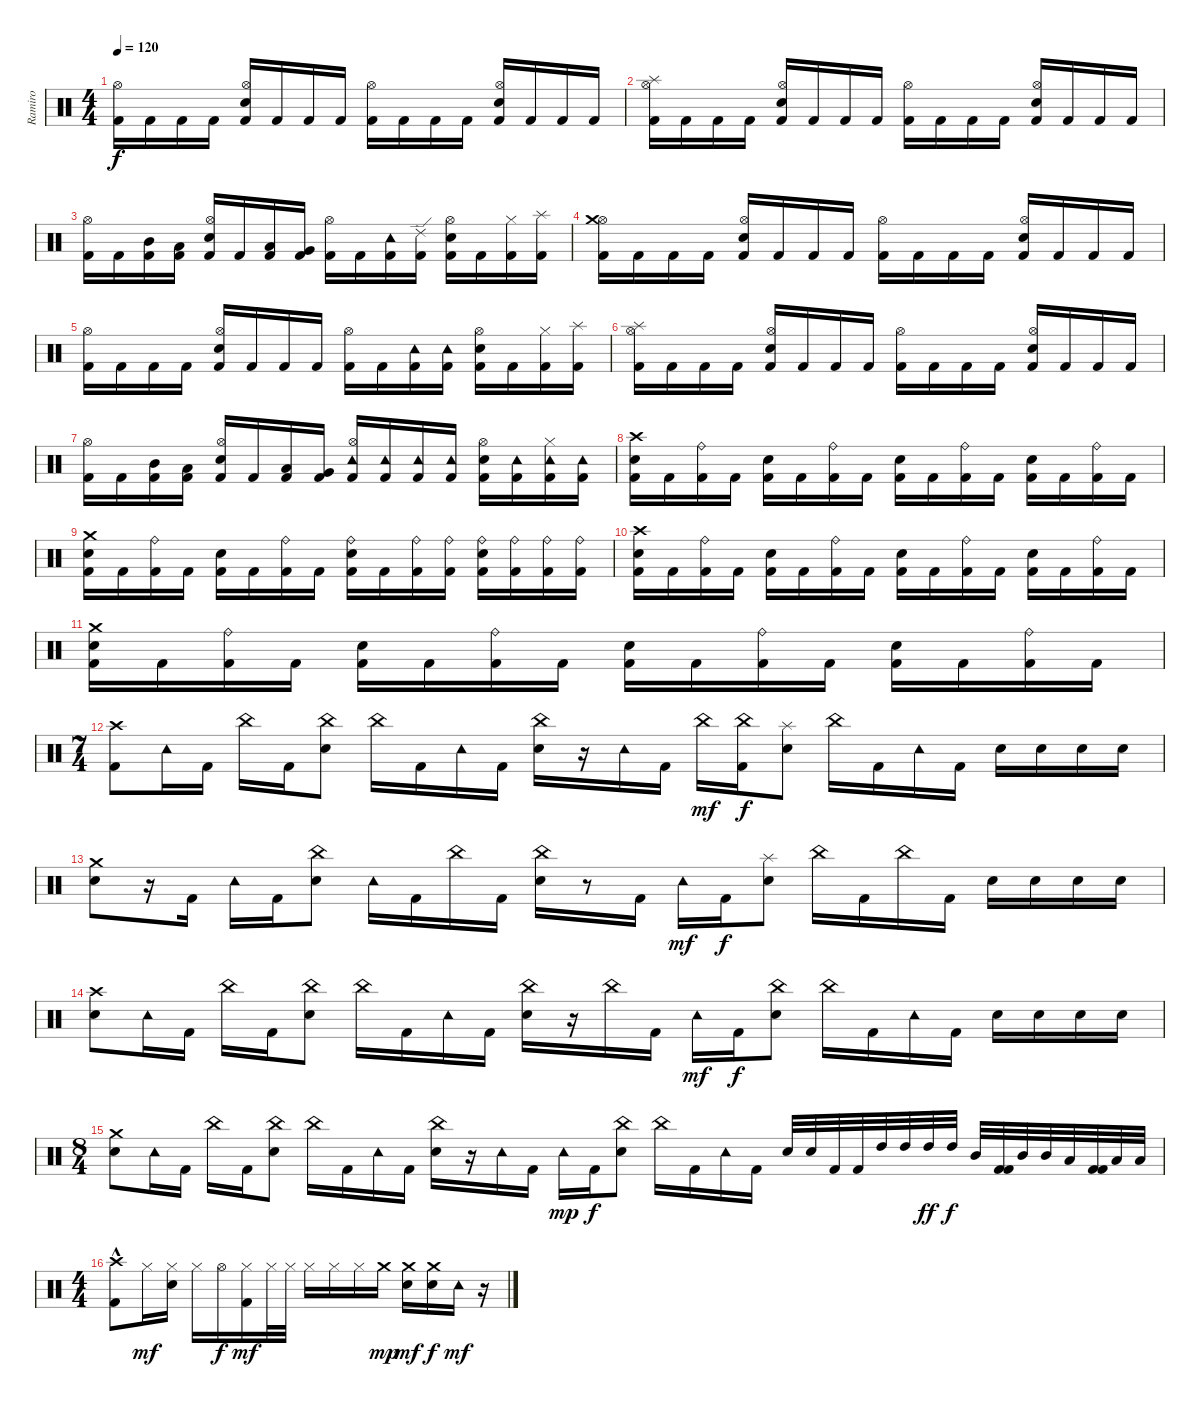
\track ("Ramiro" "Ramiro") {instrument percussion}
\staff {score}
\articulation defaults
\ts (4 4)
\tempo 120
\clef neutral
\ks c
("Kick (hit) 2" "Hi-Hat (open)").16{dy f} "Kick (hit) 2".16 "Kick (hit) 2".16 "Kick (hit) 2".16 ("Kick (hit) 2" "Electric Snare (hit)" "Hi-Hat (open)").16 "Kick (hit) 2".16 "Kick (hit) 2".16 "Kick (hit) 2".16 ("Kick (hit) 2" "Hi-Hat (open)").16 "Kick (hit) 2".16 "Kick (hit) 2".16 "Kick (hit) 2".16 ("Kick (hit) 2" "Electric Snare (hit)" "Hi-Hat (open)").16 "Kick (hit) 2".16 "Kick (hit) 2".16 "Kick (hit) 2".16 |
("Kick (hit) 2" "Splash (hit)" "Hi-Hat (open)").16 "Kick (hit) 2".16 "Kick (hit) 2".16 "Kick (hit) 2".16 ("Kick (hit) 2" "Electric Snare (hit)" "Hi-Hat (open)").16 "Kick (hit) 2".16 "Kick (hit) 2".16 "Kick (hit) 2".16 ("Kick (hit) 2" "Hi-Hat (open)").16 "Kick (hit) 2".16 "Kick (hit) 2".16 "Kick (hit) 2".16 ("Kick (hit) 2" "Electric Snare (hit)" "Hi-Hat (open)").16 "Kick (hit) 2".16 "Kick (hit) 2".16 "Kick (hit) 2".16 |
("Kick (hit) 2" "Hi-Hat (open)").16 "Kick (hit) 2".16 ("Kick (hit) 2" "Mid Tom (hit)").16 ("Kick (hit) 2" "Low Tom (hit)").16 ("Kick (hit) 2" "Electric Snare (hit)" "Hi-Hat (open)").16 "Kick (hit) 2".16 ("Kick (hit) 2" "Low Tom (hit)").16 ("Kick (hit) 2" "Very Low Tom (hit)").16 ("Kick (hit) 2" "Hi-Hat (open)").16 "Kick (hit) 2".16 ("Kick (hit) 2" "Tambourine (hit)").16 ("Kick (hit) 2" "Ride (edge) 2").16 ("Kick (hit) 2" "Hi-Hat (open)" "Electric Snare (hit)").16 "Kick (hit) 2".16 ("Kick (hit) 2" "Hi-Hat (closed)").16 ("Kick (hit) 2" "Splash (hit)").16 |
("Kick (hit) 2" "Hi-Hat (open)" "Crash medium (hit)").16 "Kick (hit) 2".16 "Kick (hit) 2".16 "Kick (hit) 2".16 ("Kick (hit) 2" "Electric Snare (hit)" "Hi-Hat (open)").16 "Kick (hit) 2".16 "Kick (hit) 2".16 "Kick (hit) 2".16 ("Kick (hit) 2" "Hi-Hat (open)").16 "Kick (hit) 2".16 "Kick (hit) 2".16 "Kick (hit) 2".16 ("Kick (hit) 2" "Electric Snare (hit)" "Hi-Hat (open)").16 "Kick (hit) 2".16 "Kick (hit) 2".16 "Kick (hit) 2".16 |
("Kick (hit) 2" "Hi-Hat (open)").16 "Kick (hit) 2".16 "Kick (hit) 2".16 "Kick (hit) 2".16 ("Kick (hit) 2" "Electric Snare (hit)" "Hi-Hat (open)").16 "Kick (hit) 2".16 "Kick (hit) 2".16 "Kick (hit) 2".16 ("Hi-Hat (open)" "Kick (hit) 2").16 "Kick (hit) 2".16 ("Tambourine (hit)" "Kick (hit) 2").16 ("Kick (hit) 2" "Tambourine (hit)").16 ("Hi-Hat (open)" "Electric Snare (hit)" "Kick (hit) 2").16 "Kick (hit) 2".16 ("Hi-Hat (closed)" "Kick (hit) 2").16 ("Splash (hit)" "Kick (hit) 2").16 |
("Hi-Hat (open)" "Splash (hit)" "Kick (hit) 2").16 "Kick (hit) 2".16 "Kick (hit) 2".16 "Kick (hit) 2".16 ("Kick (hit) 2" "Electric Snare (hit)" "Hi-Hat (open)").16 "Kick (hit) 2".16 "Kick (hit) 2".16 "Kick (hit) 2".16 ("Kick (hit) 2" "Hi-Hat (open)").16 "Kick (hit) 2".16 "Kick (hit) 2".16 "Kick (hit) 2".16 ("Kick (hit) 2" "Electric Snare (hit)" "Hi-Hat (open)").16 "Kick (hit) 2".16 "Kick (hit) 2".16 "Kick (hit) 2".16 |
("Kick (hit) 2" "Hi-Hat (open)").16 "Kick (hit) 2".16 ("Kick (hit) 2" "Mid Tom (hit)").16 ("Kick (hit) 2" "Low Tom (hit)").16 ("Kick (hit) 2" "Electric Snare (hit)" "Hi-Hat (open)").16 "Kick (hit) 2".16 ("Kick (hit) 2" "Low Tom (hit)").16 ("Kick (hit) 2" "Very Low Tom (hit)").16 ("Kick (hit) 2" "Hi-Hat (open)" "Tambourine (hit)").16 ("Kick (hit) 2" "Tambourine (hit)").16 ("Kick (hit) 2" "Tambourine (hit)").16 ("Kick (hit) 2" "Tambourine (hit)").16 ("Kick (hit) 2" "Hi-Hat (open)" "Electric Snare (hit)").16 ("Kick (hit) 2" "Tambourine (hit)").16 ("Kick (hit) 2" "Hi-Hat (closed)" "Tambourine (hit)").16 ("Kick (hit) 2" "Tambourine (hit)").16 |
("Kick (hit) 2" "Electric Snare (hit)" "Crash high (hit)").16 "Kick (hit) 2".16 ("Kick (hit) 2" "Ride (bell)").16 "Kick (hit) 2".16 ("Kick (hit) 2" "Electric Snare (hit)").16 "Kick (hit) 2".16 ("Kick (hit) 2" "Ride (bell)").16 "Kick (hit) 2".16 ("Kick (hit) 2" "Electric Snare (hit)").16 "Kick (hit) 2".16 ("Kick (hit) 2" "Ride (bell)").16 "Kick (hit) 2".16 ("Kick (hit) 2" "Electric Snare (hit)").16 "Kick (hit) 2".16 ("Kick (hit) 2" "Ride (bell)").16 "Kick (hit) 2".16 |
("Kick (hit) 2" "Electric Snare (hit)" "Crash medium (hit)").16 "Kick (hit) 2".16 ("Kick (hit) 2" "Ride (bell)").16 "Kick (hit) 2".16 ("Kick (hit) 2" "Electric Snare (hit)").16 "Kick (hit) 2".16 ("Kick (hit) 2" "Ride (bell)").16 "Kick (hit) 2".16 ("Kick (hit) 2" "Electric Snare (hit)" "Ride (bell)").16 "Kick (hit) 2".16 ("Kick (hit) 2" "Ride (bell)").16 ("Kick (hit) 2" "Ride (bell)").16 ("Kick (hit) 2" "Electric Snare (hit)" "Ride (bell)").16 ("Kick (hit) 2" "Ride (bell)").16 ("Kick (hit) 2" "Ride (bell)").16 ("Kick (hit) 2" "Ride (bell)").16 |
("Crash high (hit)" "Electric Snare (hit)" "Kick (hit) 2").16 "Kick (hit) 2".16 ("Kick (hit) 2" "Ride (bell)").16 "Kick (hit) 2".16 ("Kick (hit) 2" "Electric Snare (hit)").16 "Kick (hit) 2".16 ("Kick (hit) 2" "Ride (bell)").16 "Kick (hit) 2".16 ("Kick (hit) 2" "Electric Snare (hit)").16 "Kick (hit) 2".16 ("Kick (hit) 2" "Ride (bell)").16 "Kick (hit) 2".16 ("Kick (hit) 2" "Electric Snare (hit)").16 "Kick (hit) 2".16 ("Kick (hit) 2" "Ride (bell)").16 "Kick (hit) 2".16 |
("Kick (hit) 2" "Electric Snare (hit)" "Crash medium (hit)").16 "Kick (hit) 2".16 ("Kick (hit) 2" "Ride (bell)").16 "Kick (hit) 2".16 ("Kick (hit) 2" "Electric Snare (hit)").16 "Kick (hit) 2".16 ("Kick (hit) 2" "Ride (bell)").16 "Kick (hit) 2".16 ("Kick (hit) 2" "Electric Snare (hit)").16 "Kick (hit) 2".16 ("Kick (hit) 2" "Ride (bell)").16 "Kick (hit) 2".16 ("Kick (hit) 2" "Electric Snare (hit)").16 "Kick (hit) 2".16 ("Kick (hit) 2" "Ride (bell)").16 "Kick (hit) 2".16 |
\ts (7 4)
("Crash high (hit)" "Kick (hit) 2").8 "Tambourine (hit)".16 "Kick (hit) 2".16 "China (hit)".16 "Kick (hit) 2".16 ("Electric Snare (hit)" "China (hit)").8 "China (hit)".16 "Kick (hit) 2".16 "Tambourine (hit)".16 "Kick (hit) 2".16 ("Electric Snare (hit)" "China (hit)").16 r.16 "Tambourine (hit)".16 "Kick (hit) 2".16 "China (hit)".16{dy mf} ("Kick (hit) 2" "China (hit)").16{dy f} ("Electric Snare (hit)" "Splash (hit)").8 "China (hit)".16 "Kick (hit) 2".16 "Tambourine (hit)".16 "Kick (hit) 2".16 "Electric Snare (hit)".16 "Electric Snare (hit)".16 "Electric Snare (hit)".16 "Electric Snare (hit)".16 |
("Electric Snare (hit)" "Crash medium (hit)").8 r.16 "Kick (hit) 2".16 "Tambourine (hit)".16 "Kick (hit) 2".16 ("Electric Snare (hit)" "China (hit)").8 "Tambourine (hit)".16 "Kick (hit) 2".16 "China (hit)".16 "Kick (hit) 2".16 ("Electric Snare (hit)" "China (hit)").16 r.8 "Kick (hit) 2".16 "Tambourine (hit)".16{dy mf} "Kick (hit) 2".16{dy f} ("Electric Snare (hit)" "Splash (hit)").8 "China (hit)".16 "Kick (hit) 2".16 "China (hit)".16 "Kick (hit) 2".16 "Electric Snare (hit)".16 "Electric Snare (hit)".16 "Electric Snare (hit)".16 "Electric Snare (hit)".16 |
("Crash high (hit)" "Electric Snare (hit)").8 "Tambourine (hit)".16 "Kick (hit) 2".16 "China (hit)".16 "Kick (hit) 2".16 ("Electric Snare (hit)" "China (hit)").8 "China (hit)".16 "Kick (hit) 2".16 "Tambourine (hit)".16 "Kick (hit) 2".16 ("Electric Snare (hit)" "China (hit)").16 r.16 "China (hit)".16 "Kick (hit) 2".16 "Tambourine (hit)".16{dy mf} "Kick (hit) 2".16{dy f} ("Electric Snare (hit)" "China (hit)").8 "China (hit)".16 "Kick (hit) 2".16 "Tambourine (hit)".16 "Kick (hit) 2".16 "Electric Snare (hit)".16 "Electric Snare (hit)".16 "Electric Snare (hit)".16 "Electric Snare (hit)".16 |
\ts (8 4)
("Crash medium (hit)" "Electric Snare (hit)").8 "Tambourine (hit)".16 "Kick (hit) 2".16 "China (hit)".16 "Kick (hit) 2".16 ("Electric Snare (hit)" "China (hit)").8 "China (hit)".16 "Kick (hit) 2".16 "Tambourine (hit)".16 "Kick (hit) 2".16 ("Electric Snare (hit)" "China (hit)").16 r.16 "Tambourine (hit)".16 "Kick (hit) 2".16 "Tambourine (hit)".16{dy mp} "Kick (hit) 2".16{dy f} ("China (hit)" "Electric Snare (hit)").8 "China (hit)".16 "Kick (hit) 2".16 "Tambourine (hit)".16 "Kick (hit) 2".16 "Electric Snare (hit)".32 "Electric Snare (hit)".32 "Kick (hit) 2".32 "Kick (hit) 2".32 "High Tom (hit)".32 "High Tom (hit)".32 "High Tom (hit)".32{dy ff} "High Tom (hit)".32{dy f} "Mid Tom (hit)".32 ("Kick (hit) 2" "Kick (hit) 2").32 "Mid Tom (hit)".32 "Mid Tom (hit)".32 "Low Tom (hit)".32 ("Kick (hit) 2" "Kick (hit) 2").32 "Low Tom (hit)".32 "Low Tom (hit)".32 |
\ts (4 4)
("Crash high (hit)" "Kick (hit) 2"{hac}).8 "Hi-Hat (closed)".16{dy mf} ("Electric Snare (hit)" "Hi-Hat (closed)").16 "Hi-Hat (closed)".16 "Hi-Hat (open)".16{dy f} ("Kick (hit) 2" "Hi-Hat (closed)").16{dy mf} "Hi-Hat (closed)".32 "Hi-Hat (closed)".32 "Hi-Hat (closed)".16 "Hi-Hat (closed)".16 "Hi-Hat (closed)".16 "Crash medium (hit)".16{dy mp} ("Electric Snare (hit)" "Crash medium (hit)").16{dy mf} ("Electric Snare (hit)" "Crash medium (hit)").16{dy f} "Tambourine (hit)".16{dy mf} r.16
